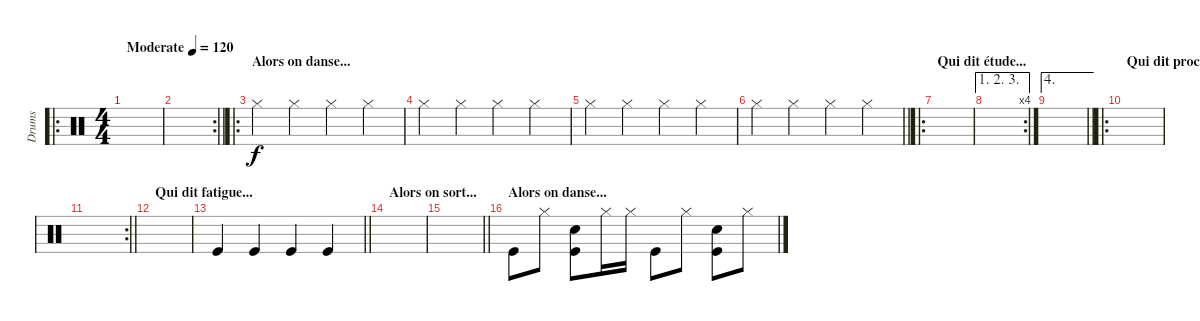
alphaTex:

\track ("Drums" "Drums") {instrument percussion}
\staff {score}
\articulation defaults
\ro
\ts (4 4)
\tempo (120 "Moderate")
\clef neutral
\ks c
|
\rc 2
\barLineRight lightlight
|
\ro
\section ("" "Alors on danse...")
"Hi-Hat (closed)".4 "Hi-Hat (closed)".4 "Hi-Hat (closed)".4 "Hi-Hat (closed)".4 |
"Hi-Hat (closed)".4 "Hi-Hat (closed)".4 "Hi-Hat (closed)".4 "Hi-Hat (closed)".4 |
"Hi-Hat (closed)".4 "Hi-Hat (closed)".4 "Hi-Hat (closed)".4 "Hi-Hat (closed)".4 |
\barLineRight lightlight "Hi-Hat (closed)".4 "Hi-Hat (closed)".4 "Hi-Hat (closed)".4 "Hi-Hat (closed)".4
|
\ro
\section ("" "Qui dit étude...")
|
\ae (1 2 3)
\rc 4
|
\ae 4
\barLineRight lightlight
|
\ro
\section ("" "Qui dit proches...")
|
\rc 2
\barLineRight lightlight
|
\section ("" "Qui dit fatigue...")
|
\barLineRight lightlight "Kick (hit)".4 "Kick (hit)".4 "Kick (hit)".4 "Kick (hit)".4
|
\section ("" "Alors on sort...")
|
\barLineRight lightlight
|
\section ("" "Alors on danse...")
"Kick (hit)".8 "Hi-Hat (closed)".8 ("Snare (hit) 2" "Kick (hit)").8 "Hi-Hat (closed)".16 "Hi-Hat (closed)".16 "Kick (hit)".8 "Hi-Hat (closed)".8 ("Snare (hit) 2" "Kick (hit)").8 "Hi-Hat (closed)".8
